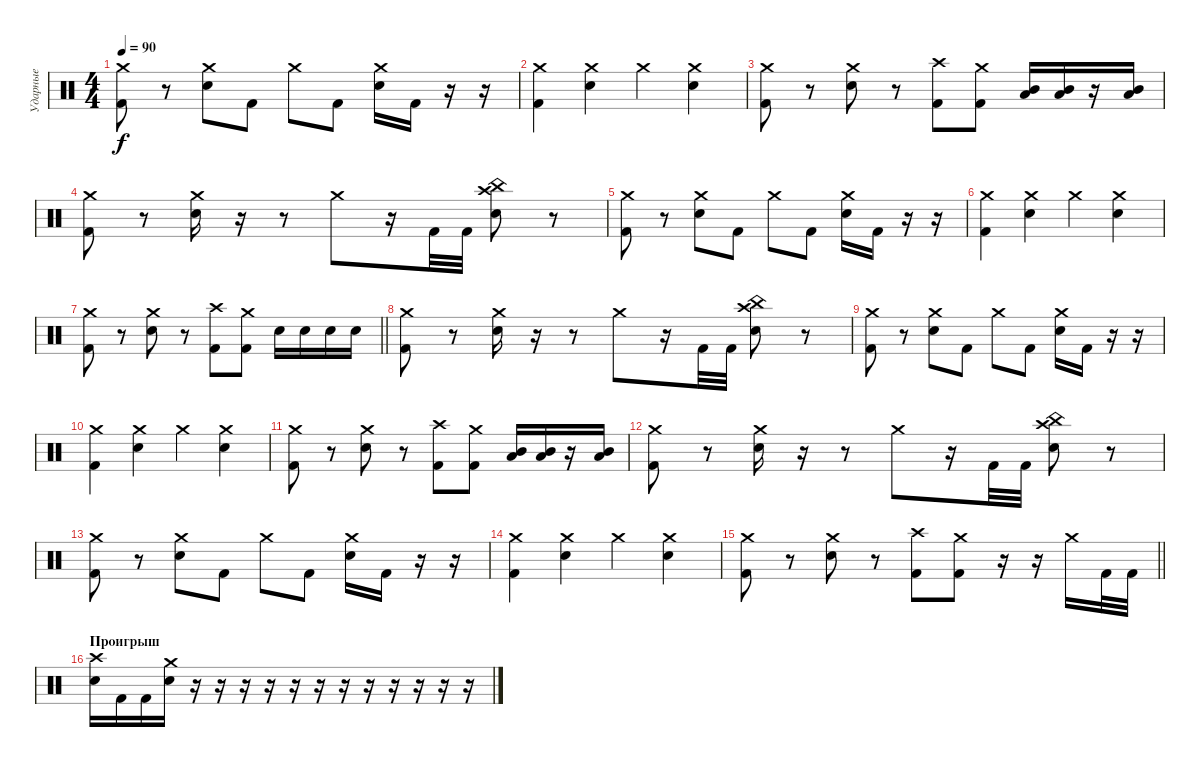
\track ("Ударные" "Ударные") {instrument percussion}
\staff {score}
\articulation defaults
\ts (4 4)
\tempo 90
\clef neutral
\ks c
("Crash medium (hit)" "Kick (hit) 2").8{dy f} r.8 ("Crash medium (hit)" "Electric Snare (hit)").8 "Kick (hit) 2".8 "Crash medium (hit)".8 "Kick (hit) 2".8 ("Crash medium (hit)" "Electric Snare (hit)").16 "Kick (hit) 2".16 r.16 r.16 |
("Crash medium (hit)" "Kick (hit) 2").4 ("Crash medium (hit)" "Electric Snare (hit)").4 "Crash medium (hit)".4 ("Crash medium (hit)" "Electric Snare (hit)").4 |
("Crash medium (hit)" "Kick (hit) 2").8 r.8 ("Crash medium (hit)" "Electric Snare (hit)").8 r.8 ("Crash high (hit)" "Kick (hit) 2").8 ("Crash medium (hit)" "Kick (hit) 2").8 ("Mid Tom (hit)" "Low Floor Tom (hit)").16 ("Mid Tom (hit)" "Low Floor Tom (hit)").16 r.16 ("Mid Tom (hit)" "Low Floor Tom (hit)").16 |
("Crash medium (hit)" "Kick (hit) 2").8 r.8 ("Crash medium (hit)" "Electric Snare (hit)").16 r.16 r.8 "Crash medium (hit)".8 r.16 "Kick (hit) 2".32 "Kick (hit) 2".32 ("China (hit)" "Crash high (hit)" "Electric Snare (hit)").8 r.8 |
("Crash medium (hit)" "Kick (hit) 2").8 r.8 ("Crash medium (hit)" "Electric Snare (hit)").8 "Kick (hit) 2".8 "Crash medium (hit)".8 "Kick (hit) 2".8 ("Crash medium (hit)" "Electric Snare (hit)").16 "Kick (hit) 2".16 r.16 r.16 |
("Crash medium (hit)" "Kick (hit) 2").4 ("Crash medium (hit)" "Electric Snare (hit)").4 "Crash medium (hit)".4 ("Crash medium (hit)" "Electric Snare (hit)").4 |
\barLineRight lightlight
("Crash medium (hit)" "Kick (hit) 2").8 r.8 ("Crash medium (hit)" "Electric Snare (hit)").8 r.8 ("Crash high (hit)" "Kick (hit) 2").8 ("Crash medium (hit)" "Kick (hit) 2").8 "Electric Snare (hit)".16 "Electric Snare (hit)".16 "Electric Snare (hit)".16 "Electric Snare (hit)".16 |
("Crash medium (hit)" "Kick (hit) 2").8 r.8 ("Crash medium (hit)" "Electric Snare (hit)").16 r.16 r.8 "Crash medium (hit)".8 r.16 "Kick (hit) 2".32 "Kick (hit) 2".32 ("China (hit)" "Crash high (hit)" "Electric Snare (hit)").8 r.8 |
("Crash medium (hit)" "Kick (hit) 2").8 r.8 ("Crash medium (hit)" "Electric Snare (hit)").8 "Kick (hit) 2".8 "Crash medium (hit)".8 "Kick (hit) 2".8 ("Crash medium (hit)" "Electric Snare (hit)").16 "Kick (hit) 2".16 r.16 r.16 |
("Crash medium (hit)" "Kick (hit) 2").4 ("Crash medium (hit)" "Electric Snare (hit)").4 "Crash medium (hit)".4 ("Crash medium (hit)" "Electric Snare (hit)").4 |
("Crash medium (hit)" "Kick (hit) 2").8 r.8 ("Crash medium (hit)" "Electric Snare (hit)").8 r.8 ("Crash high (hit)" "Kick (hit) 2").8 ("Crash medium (hit)" "Kick (hit) 2").8 ("Mid Tom (hit)" "Low Floor Tom (hit)").16 ("Mid Tom (hit)" "Low Floor Tom (hit)").16 r.16 ("Mid Tom (hit)" "Low Floor Tom (hit)").16 |
("Crash medium (hit)" "Kick (hit) 2").8 r.8 ("Crash medium (hit)" "Electric Snare (hit)").16 r.16 r.8 "Crash medium (hit)".8 r.16 "Kick (hit) 2".32 "Kick (hit) 2".32 ("China (hit)" "Crash high (hit)" "Electric Snare (hit)").8 r.8 |
("Crash medium (hit)" "Kick (hit) 2").8 r.8 ("Crash medium (hit)" "Electric Snare (hit)").8 "Kick (hit) 2".8 "Crash medium (hit)".8 "Kick (hit) 2".8 ("Crash medium (hit)" "Electric Snare (hit)").16 "Kick (hit) 2".16 r.16 r.16 |
("Crash medium (hit)" "Kick (hit) 2").4 ("Crash medium (hit)" "Electric Snare (hit)").4 "Crash medium (hit)".4 ("Crash medium (hit)" "Electric Snare (hit)").4 |
\barLineRight lightlight
("Crash medium (hit)" "Kick (hit) 2").8 r.8 ("Crash medium (hit)" "Electric Snare (hit)").8 r.8 ("Crash high (hit)" "Kick (hit) 2").8 ("Crash medium (hit)" "Kick (hit) 2").8 r.16 r.16 "Crash medium (hit)".16 "Kick (hit) 2".32 "Kick (hit) 2".32 |
\section ("" "Проигрыш")
("Crash high (hit)" "Electric Snare (hit)").16 "Kick (hit) 2".16 "Kick (hit) 2".16 ("Crash medium (hit)" "Electric Snare (hit)").16 r.16 r.16 r.16 r.16 r.16 r.16 r.16 r.16 r.16 r.16 r.16 r.16
